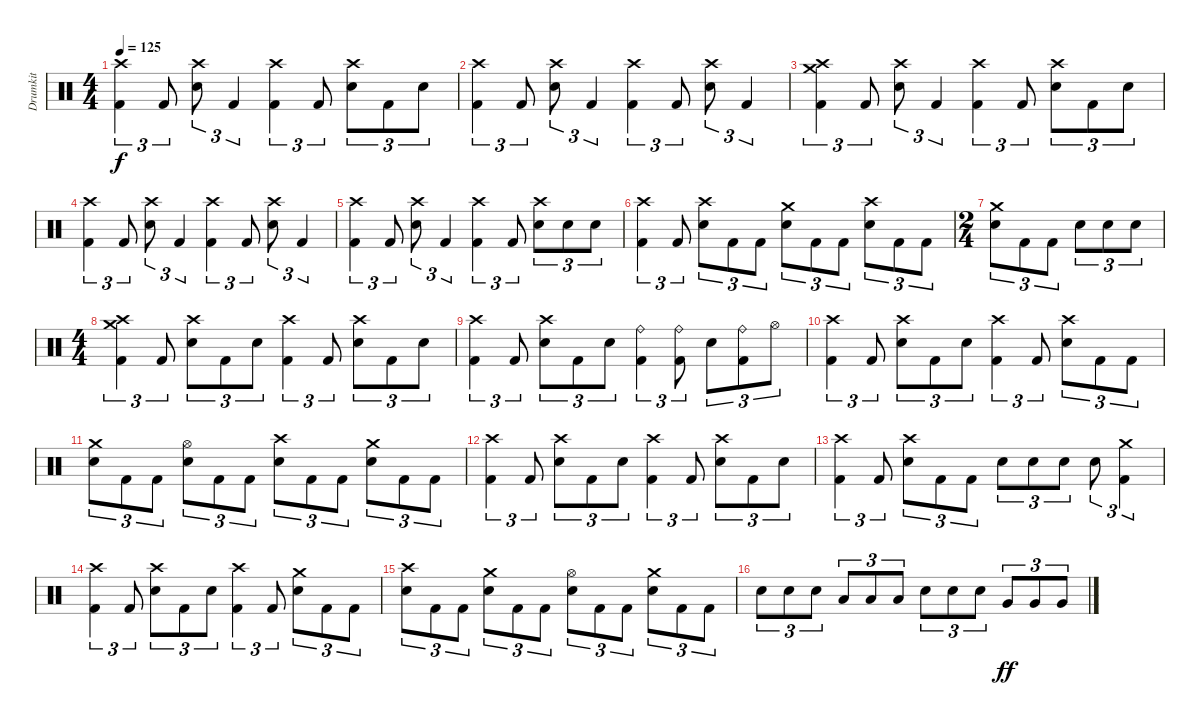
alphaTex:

\track ("Drumkit" "Drumkit") {instrument percussion}
\staff {score}
\articulation defaults
\ts (4 4)
\tempo 125
\clef neutral
\ks c
("Crash high (hit)" "Kick (hit) 2").4{tu (3 2) dy f} "Kick (hit) 2".8{tu (3 2)} ("Crash high (hit)" "Electric Snare (hit)").8{tu (3 2)} "Kick (hit) 2".4{tu (3 2)} ("Crash high (hit)" "Kick (hit) 2").4{tu (3 2)} "Kick (hit) 2".8{tu (3 2)} ("Crash high (hit)" "Electric Snare (hit)").8{tu (3 2)} "Kick (hit) 2".8{tu (3 2)} "Electric Snare (hit)".8{tu (3 2)} |
("Crash high (hit)" "Kick (hit) 2").4{tu (3 2)} "Kick (hit) 2".8{tu (3 2)} ("Crash high (hit)" "Electric Snare (hit)").8{tu (3 2)} "Kick (hit) 2".4{tu (3 2)} ("Crash high (hit)" "Kick (hit) 2").4{tu (3 2)} "Kick (hit) 2".8{tu (3 2)} ("Crash high (hit)" "Electric Snare (hit)").8{tu (3 2)} "Kick (hit) 2".4{tu (3 2)} |
("Crash high (hit)" "Crash medium (hit)" "Kick (hit) 2").4{tu (3 2)} "Kick (hit) 2".8{tu (3 2)} ("Crash high (hit)" "Electric Snare (hit)").8{tu (3 2)} "Kick (hit) 2".4{tu (3 2)} ("Crash high (hit)" "Kick (hit) 2").4{tu (3 2)} "Kick (hit) 2".8{tu (3 2)} ("Crash high (hit)" "Electric Snare (hit)").8{tu (3 2)} "Kick (hit) 2".8{tu (3 2)} "Electric Snare (hit)".8{tu (3 2)} |
("Crash high (hit)" "Kick (hit) 2").4{tu (3 2)} "Kick (hit) 2".8{tu (3 2)} ("Crash high (hit)" "Electric Snare (hit)").8{tu (3 2)} "Kick (hit) 2".4{tu (3 2)} ("Crash high (hit)" "Kick (hit) 2").4{tu (3 2)} "Kick (hit) 2".8{tu (3 2)} ("Crash high (hit)" "Electric Snare (hit)").8{tu (3 2)} "Kick (hit) 2".4{tu (3 2)} |
("Crash high (hit)" "Kick (hit) 2").4{tu (3 2)} "Kick (hit) 2".8{tu (3 2)} ("Crash high (hit)" "Electric Snare (hit)").8{tu (3 2)} "Kick (hit) 2".4{tu (3 2)} ("Crash high (hit)" "Kick (hit) 2").4{tu (3 2)} "Kick (hit) 2".8{tu (3 2)} ("Crash high (hit)" "Electric Snare (hit)").8{tu (3 2)} "Electric Snare (hit)".8{tu (3 2)} "Electric Snare (hit)".8{tu (3 2)} |
("Crash high (hit)" "Kick (hit) 2").4{tu (3 2)} "Kick (hit) 2".8{tu (3 2)} ("Crash high (hit)" "Electric Snare (hit)").8{tu (3 2)} "Kick (hit) 2".8{tu (3 2)} "Kick (hit) 2".8{tu (3 2)} ("Crash medium (hit)" "Electric Snare (hit)").8{tu (3 2)} "Kick (hit) 2".8{tu (3 2)} "Kick (hit) 2".8{tu (3 2)} ("Crash high (hit)" "Electric Snare (hit)").8{tu (3 2)} "Kick (hit) 2".8{tu (3 2)} "Kick (hit) 2".8{tu (3 2)} |
\ts (2 4)
("Crash medium (hit)" "Electric Snare (hit)").8{tu (3 2)} "Kick (hit) 2".8{tu (3 2)} "Kick (hit) 2".8{tu (3 2)} "Electric Snare (hit)".8{tu (3 2)} "Electric Snare (hit)".8{tu (3 2)} "Electric Snare (hit)".8{tu (3 2)} |
\ts (4 4)
("Crash high (hit)" "Crash medium (hit)" "Kick (hit) 2").4{tu (3 2)} "Kick (hit) 2".8{tu (3 2)} ("Crash high (hit)" "Electric Snare (hit)").8{tu (3 2)} "Kick (hit) 2".8{tu (3 2)} "Electric Snare (hit)".8{tu (3 2)} ("Crash high (hit)" "Kick (hit) 2").4{tu (3 2)} "Kick (hit) 2".8{tu (3 2)} ("Crash high (hit)" "Electric Snare (hit)").8{tu (3 2)} "Kick (hit) 2".8{tu (3 2)} "Electric Snare (hit)".8{tu (3 2)} |
("Crash high (hit)" "Kick (hit) 2").4{tu (3 2)} "Kick (hit) 2".8{tu (3 2)} ("Crash high (hit)" "Electric Snare (hit)").8{tu (3 2)} "Kick (hit) 2".8{tu (3 2)} "Electric Snare (hit)".8{tu (3 2)} ("Ride (bell)" "Kick (hit) 2").4{tu (3 2)} ("Ride (bell)" "Kick (hit) 2").8{tu (3 2)} "Electric Snare (hit)".8{tu (3 2)} ("Ride (bell)" "Kick (hit) 2").8{tu (3 2)} "Hi-Hat (open)".8{tu (3 2)} |
("Crash high (hit)" "Kick (hit) 2").4{tu (3 2)} "Kick (hit) 2".8{tu (3 2)} ("Crash high (hit)" "Electric Snare (hit)").8{tu (3 2)} "Kick (hit) 2".8{tu (3 2)} "Electric Snare (hit)".8{tu (3 2)} ("Crash high (hit)" "Kick (hit) 2").4{tu (3 2)} "Kick (hit) 2".8{tu (3 2)} ("Crash high (hit)" "Electric Snare (hit)").8{tu (3 2)} "Kick (hit) 2".8{tu (3 2)} "Kick (hit) 2".8{tu (3 2)} |
("Crash medium (hit)" "Electric Snare (hit)").8{tu (3 2)} "Kick (hit) 2".8{tu (3 2)} "Kick (hit) 2".8{tu (3 2)} ("Hi-Hat (open)" "Electric Snare (hit)").8{tu (3 2)} "Kick (hit) 2".8{tu (3 2)} "Kick (hit) 2".8{tu (3 2)} ("Crash high (hit)" "Electric Snare (hit)").8{tu (3 2)} "Kick (hit) 2".8{tu (3 2)} "Kick (hit) 2".8{tu (3 2)} ("Crash medium (hit)" "Electric Snare (hit)").8{tu (3 2)} "Kick (hit) 2".8{tu (3 2)} "Kick (hit) 2".8{tu (3 2)} |
("Crash high (hit)" "Kick (hit) 2").4{tu (3 2)} "Kick (hit) 2".8{tu (3 2)} ("Crash high (hit)" "Electric Snare (hit)").8{tu (3 2)} "Kick (hit) 2".8{tu (3 2)} "Electric Snare (hit)".8{tu (3 2)} ("Crash high (hit)" "Kick (hit) 2").4{tu (3 2)} "Kick (hit) 2".8{tu (3 2)} ("Crash high (hit)" "Electric Snare (hit)").8{tu (3 2)} "Kick (hit) 2".8{tu (3 2)} "Electric Snare (hit)".8{tu (3 2)} |
("Crash high (hit)" "Kick (hit) 2").4{tu (3 2)} "Kick (hit) 2".8{tu (3 2)} ("Crash high (hit)" "Electric Snare (hit)").8{tu (3 2)} "Kick (hit) 2".8{tu (3 2)} "Kick (hit) 2".8{tu (3 2)} "Electric Snare (hit)".8{tu (3 2)} "Electric Snare (hit)".8{tu (3 2)} "Electric Snare (hit)".8{tu (3 2)} "Electric Snare (hit)".8{tu (3 2)} ("Crash medium (hit)" "Kick (hit) 2").4{tu (3 2)} |
("Crash high (hit)" "Kick (hit) 2").4{tu (3 2)} "Kick (hit) 2".8{tu (3 2)} ("Crash high (hit)" "Electric Snare (hit)").8{tu (3 2)} "Kick (hit) 2".8{tu (3 2)} "Electric Snare (hit)".8{tu (3 2)} ("Crash high (hit)" "Kick (hit) 2").4{tu (3 2)} "Kick (hit) 2".8{tu (3 2)} ("Crash medium (hit)" "Electric Snare (hit)").8{tu (3 2)} "Kick (hit) 2".8{tu (3 2)} "Kick (hit) 2".8{tu (3 2)} |
("Crash high (hit)" "Electric Snare (hit)").8{tu (3 2)} "Kick (hit) 2".8{tu (3 2)} "Kick (hit) 2".8{tu (3 2)} ("Crash medium (hit)" "Electric Snare (hit)").8{tu (3 2)} "Kick (hit) 2".8{tu (3 2)} "Kick (hit) 2".8{tu (3 2)} ("Hi-Hat (open)" "Electric Snare (hit)").8{tu (3 2)} "Kick (hit) 2".8{tu (3 2)} "Kick (hit) 2".8{tu (3 2)} ("Crash medium (hit)" "Electric Snare (hit)").8{tu (3 2)} "Kick (hit) 2".8{tu (3 2)} "Kick (hit) 2".8{tu (3 2)} |
"Electric Snare (hit)".8{tu (3 2)} "Electric Snare (hit)".8{tu (3 2)} "Electric Snare (hit)".8{tu (3 2)} "Low Tom (hit)".8{tu (3 2)} "Low Tom (hit)".8{tu (3 2)} "Low Tom (hit)".8{tu (3 2)} "Electric Snare (hit)".8{tu (3 2)} "Electric Snare (hit)".8{tu (3 2)} "Electric Snare (hit)".8{tu (3 2)} "Very Low Tom (hit)".8{tu (3 2) dy ff} "Very Low Tom (hit)".8{tu (3 2)} "Very Low Tom (hit)".8{tu (3 2)}
